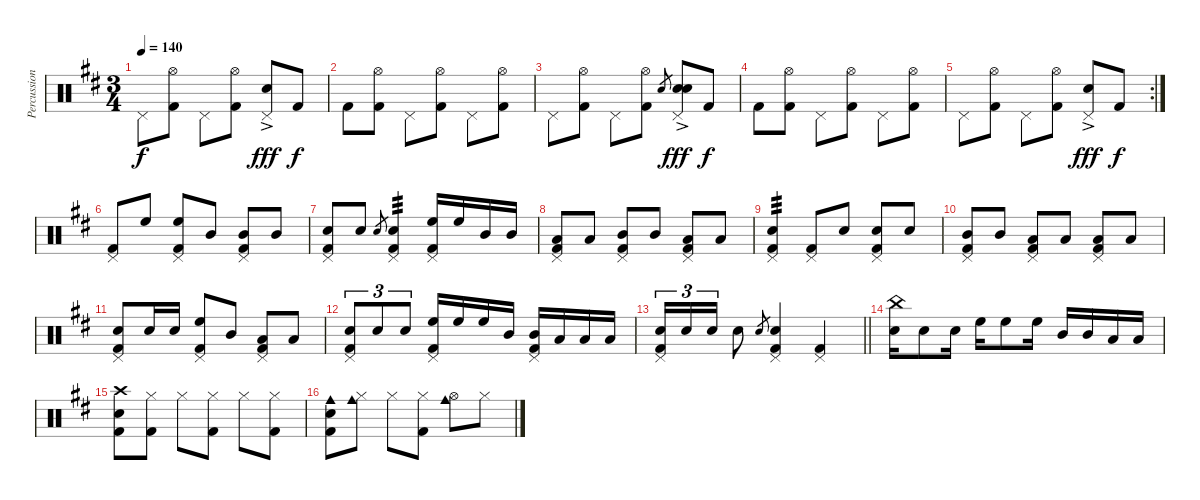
\track ("Percussions" "Percussion") {instrument percussion}
\staff {score}
\articulation defaults
\ts (3 4)
\tempo 140
\clef neutral
\ks d "Pedal Hi-Hat (hit)".8{dy f}
("Hi-Hat (open)" "Kick (hit) 2").8 "Pedal Hi-Hat (hit)".8 ("Hi-Hat (open)" "Kick (hit) 2").8 ("Pedal Hi-Hat (hit)" "Snare (hit) 2"{ac}).8{dy fff} "Kick (hit) 2".8{dy f} |
"Kick (hit) 2".8 ("Hi-Hat (open)" "Kick (hit) 2").8 "Pedal Hi-Hat (hit)".8 ("Hi-Hat (open)" "Kick (hit) 2").8 "Pedal Hi-Hat (hit)".8 ("Hi-Hat (open)" "Kick (hit) 2").8 |
"Pedal Hi-Hat (hit)".8 ("Hi-Hat (open)" "Kick (hit) 2").8 "Pedal Hi-Hat (hit)".8 ("Hi-Hat (open)" "Kick (hit) 2").8 "Snare (hit) 2".8{gr} ("Pedal Hi-Hat (hit)" "Snare (hit) 2"{ac} "Electric Snare (hit)").8{dy fff} "Kick (hit) 2".8{dy f} |
"Kick (hit) 2".8 ("Hi-Hat (open)" "Kick (hit) 2").8 "Pedal Hi-Hat (hit)".8 ("Hi-Hat (open)" "Kick (hit) 2").8 "Pedal Hi-Hat (hit)".8 ("Hi-Hat (open)" "Kick (hit) 2").8 |
\rc 2 "Pedal Hi-Hat (hit)".8
("Hi-Hat (open)" "Kick (hit) 2").8 "Pedal Hi-Hat (hit)".8 ("Hi-Hat (open)" "Kick (hit) 2").8 ("Pedal Hi-Hat (hit)" "Snare (hit) 2"{ac}).8{dy fff} "Kick (hit) 2".8{dy f} |
("Pedal Hi-Hat (hit)" "Kick (hit) 2").8{volume 13 balance 8} "High Floor Tom (hit)".8 ("Pedal Hi-Hat (hit)" "High Floor Tom (hit)" "Kick (hit) 2").8 "Mid Tom (hit)".8 ("Pedal Hi-Hat (hit)" "Mid Tom (hit)" "Kick (hit) 2").8 "Mid Tom (hit)".8 |
("Pedal Hi-Hat (hit)" "Snare (hit) 2" "Kick (hit) 2").8 "Snare (hit) 2".8 "Snare (hit) 2".8{gr} ("Pedal Hi-Hat (hit)" "Snare (hit) 2" "Kick (hit) 2").4{tp 3} ("Pedal Hi-Hat (hit)" "High Floor Tom (hit)" "Kick (hit) 2").16 "High Floor Tom (hit)".16 "Mid Tom (hit)".16 "Mid Tom (hit)".16 |
("Pedal Hi-Hat (hit)" "Low Tom (hit)" "Kick (hit) 2").8 "Low Tom (hit)".8 ("Pedal Hi-Hat (hit)" "Mid Tom (hit)" "Kick (hit) 2").8 "Mid Tom (hit)".8 ("Pedal Hi-Hat (hit)" "Low Floor Tom (hit)" "Kick (hit) 2").8 "Low Floor Tom (hit)".8 |
("Pedal Hi-Hat (hit)" "Snare (hit) 2" "Kick (hit) 2").4{tp 3} ("Pedal Hi-Hat (hit)" "Kick (hit) 2").8 "Snare (hit) 2".8 ("Pedal Hi-Hat (hit)" "Snare (hit) 2" "Kick (hit) 2").8 "Snare (hit) 2".8 |
("Pedal Hi-Hat (hit)" "Mid Tom (hit)" "Kick (hit) 2").8 "Mid Tom (hit)".8 ("Pedal Hi-Hat (hit)" "Low Tom (hit)" "Kick (hit) 2").8 "Low Tom (hit)".8 ("Pedal Hi-Hat (hit)" "Low Floor Tom (hit)" "Kick (hit) 2").8 "Low Floor Tom (hit)".8 |
("Pedal Hi-Hat (hit)" "Snare (hit) 2" "Kick (hit) 2").8 "Snare (hit) 2".16 "Snare (hit) 2".16 ("Pedal Hi-Hat (hit)" "High Floor Tom (hit)" "Kick (hit) 2").8 "Mid Tom (hit)".8 ("Pedal Hi-Hat (hit)" "Low Tom (hit)" "Kick (hit) 2").8 "Low Floor Tom (hit)".8 |
("Pedal Hi-Hat (hit)" "Snare (hit) 2" "Kick (hit) 2").8{tu (3 2)} "Snare (hit) 2".8{tu (3 2)} "Snare (hit) 2".8{tu (3 2)} ("Pedal Hi-Hat (hit)" "High Floor Tom (hit)" "Kick (hit) 2").16 "High Floor Tom (hit)".16 "High Floor Tom (hit)".16 "Mid Tom (hit)".16 ("Pedal Hi-Hat (hit)" "Mid Tom (hit)" "Kick (hit) 2").16 "Low Tom (hit)".16 "Low Tom (hit)".16 "Low Floor Tom (hit)".16 |
\barLineRight lightlight
("Pedal Hi-Hat (hit)" "Snare (hit) 2" "Kick (hit) 2").16{tu (3 2)} "Snare (hit) 2".16{tu (3 2)} "Snare (hit) 2".16{tu (3 2)} "Snare (hit) 2".8 "Snare (hit) 2".8{gr} ("Pedal Hi-Hat (hit)" "Snare (hit) 2" "Kick (hit) 2").4 ("Pedal Hi-Hat (hit)" "Kick (hit) 2").4 |
("China (hit)" "Snare (hit) 2").16{volume 14 balance 8} "Snare (hit) 2".8 "Snare (hit) 2".16 "High Floor Tom (hit)".16 "High Floor Tom (hit)".8 "High Floor Tom (hit)".16 "Mid Tom (hit)".16 "Mid Tom (hit)".16 "Low Tom (hit)".16 "Low Floor Tom (hit)".16 |
("Crash high (hit)" "Snare (hit) 2" "Kick (hit) 2").8{volume 12 balance 8} ("Hi-Hat (closed)" "Kick (hit) 2").8 "Hi-Hat (closed)".8 ("Hi-Hat (closed)" "Kick (hit) 2").8 "Hi-Hat (closed)".8 ("Hi-Hat (closed)" "Kick (hit) 2").8 |
("Cowbell medium (hit)" "Snare (hit) 2" "Kick (hit) 2").8 ("Hi-Hat (closed)" "Cowbell medium (hit)").8 "Hi-Hat (closed)".8 ("Hi-Hat (closed)" "Kick (hit) 2").8 ("Hi-Hat (open)" "Cowbell medium (hit)").8 "Hi-Hat (closed)".8
